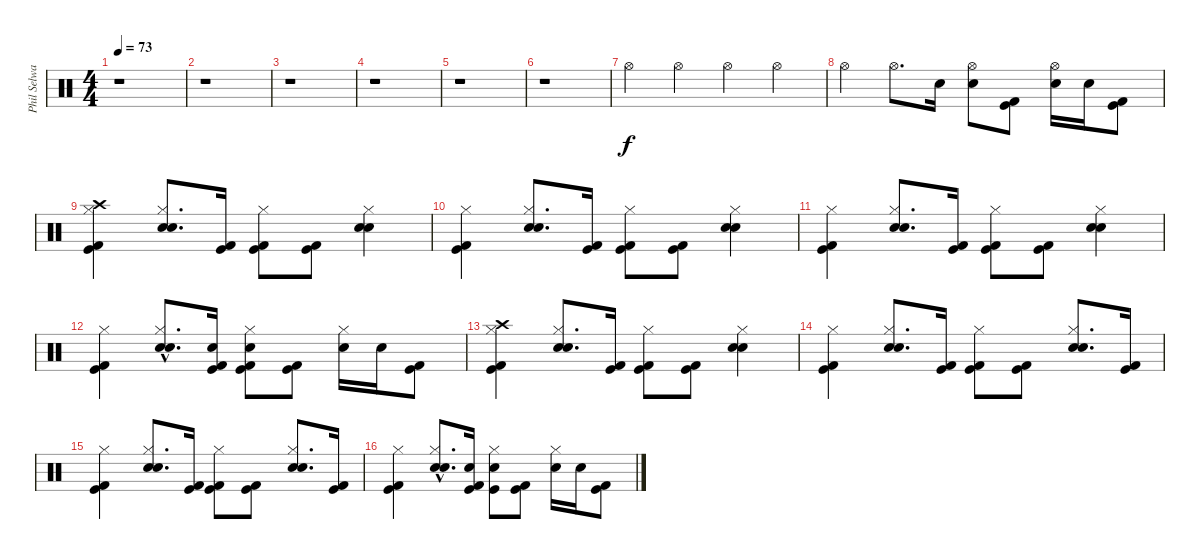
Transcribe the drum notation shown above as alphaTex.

\track ("Phil Selway - Drums" "Phil Selwa") {instrument percussion}
\staff {score}
\articulation defaults
\ts (4 4)
\tempo 73
\clef neutral
\ks c
r.1{dy f} |
r.1 |
r.1 |
r.1 |
r.1 |
r.1 |
"Hi-Hat (open)".4 "Hi-Hat (open)".4{volume 2} "Hi-Hat (open)".4{volume 3} "Hi-Hat (open)".4{volume 6} |
"Hi-Hat (open)".4{volume 8} "Hi-Hat (open)".8{d volume 10} "Snare (hit) 2".16{volume 11} ("Hi-Hat (open)" "Snare (hit) 2").8{volume 12} ("Kick (hit) 2" "Kick (hit)").8{volume 13} ("Hi-Hat (open)" "Snare (hit) 2").16{volume 13} "Snare (hit) 2".16 ("Kick (hit) 2" "Kick (hit)").8 |
("Kick (hit) 2" "Hi-Hat (closed)" "Kick (hit)" "Crash high (hit)").4 ("Electric Snare (hit)" "Hi-Hat (closed)" "Snare (hit) 2").8{d} ("Kick (hit)" "Kick (hit) 2").16 ("Kick (hit)" "Kick (hit) 2" "Hi-Hat (closed)").8 ("Kick (hit)" "Kick (hit) 2").8 ("Snare (hit) 2" "Electric Snare (hit)" "Hi-Hat (closed)").4 |
("Hi-Hat (closed)" "Kick (hit) 2" "Kick (hit)").4 ("Hi-Hat (closed)" "Snare (hit) 2" "Electric Snare (hit)").8{d} ("Kick (hit)" "Kick (hit) 2").16 ("Kick (hit)" "Kick (hit) 2" "Hi-Hat (closed)").8 ("Kick (hit)" "Kick (hit) 2").8 ("Snare (hit) 2" "Electric Snare (hit)" "Hi-Hat (closed)").4 |
("Hi-Hat (closed)" "Kick (hit) 2" "Kick (hit)").4 ("Hi-Hat (closed)" "Snare (hit) 2" "Electric Snare (hit)").8{d} ("Kick (hit)" "Kick (hit) 2").16 ("Kick (hit)" "Kick (hit) 2" "Hi-Hat (closed)").8 ("Kick (hit)" "Kick (hit) 2").8 ("Snare (hit) 2" "Electric Snare (hit)" "Hi-Hat (closed)").4 |
("Hi-Hat (closed)" "Kick (hit) 2" "Kick (hit)").4 ("Hi-Hat (closed)" "Snare (hit) 2"{hac} "Electric Snare (hit)").8{d} ("Kick (hit)" "Kick (hit) 2" "Snare (hit) 2").16 ("Snare (hit) 2" "Kick (hit)" "Kick (hit) 2" "Hi-Hat (closed)").8 ("Kick (hit) 2" "Kick (hit)").8 ("Hi-Hat (closed)" "Snare (hit) 2").16 "Snare (hit) 2".16 ("Kick (hit) 2" "Kick (hit)").8 |
("Crash high (hit)" "Hi-Hat (closed)" "Kick (hit) 2" "Kick (hit)").4 ("Hi-Hat (closed)" "Snare (hit) 2" "Electric Snare (hit)").8{d} ("Kick (hit)" "Kick (hit) 2").16 ("Kick (hit)" "Kick (hit) 2" "Hi-Hat (closed)").8 ("Kick (hit)" "Kick (hit) 2").8 ("Snare (hit) 2" "Electric Snare (hit)" "Hi-Hat (closed)").4 |
("Hi-Hat (closed)" "Kick (hit) 2" "Kick (hit)").4 ("Hi-Hat (closed)" "Snare (hit) 2" "Electric Snare (hit)").8{d} ("Kick (hit)" "Kick (hit) 2").16 ("Kick (hit)" "Kick (hit) 2" "Hi-Hat (closed)").8 ("Kick (hit)" "Kick (hit) 2").8 ("Snare (hit) 2" "Electric Snare (hit)" "Hi-Hat (closed)").8{d} ("Kick (hit)" "Kick (hit) 2").16 |
("Hi-Hat (closed)" "Kick (hit) 2" "Kick (hit)").4 ("Hi-Hat (closed)" "Snare (hit) 2" "Electric Snare (hit)").8{d} ("Kick (hit)" "Kick (hit) 2").16 ("Kick (hit)" "Kick (hit) 2" "Hi-Hat (closed)").8 ("Kick (hit)" "Kick (hit) 2").8 ("Snare (hit) 2" "Electric Snare (hit)" "Hi-Hat (closed)").8{d} ("Kick (hit)" "Kick (hit) 2").16 |
("Hi-Hat (closed)" "Kick (hit) 2" "Kick (hit)").4 ("Hi-Hat (closed)" "Snare (hit) 2"{hac} "Electric Snare (hit)").8{d} ("Kick (hit)" "Kick (hit) 2" "Snare (hit) 2").16 ("Kick (hit)" "Hi-Hat (closed)" "Snare (hit) 2").8 ("Kick (hit) 2" "Kick (hit)").8 ("Hi-Hat (closed)" "Snare (hit) 2").16 "Snare (hit) 2".16 ("Kick (hit) 2" "Kick (hit)").8
